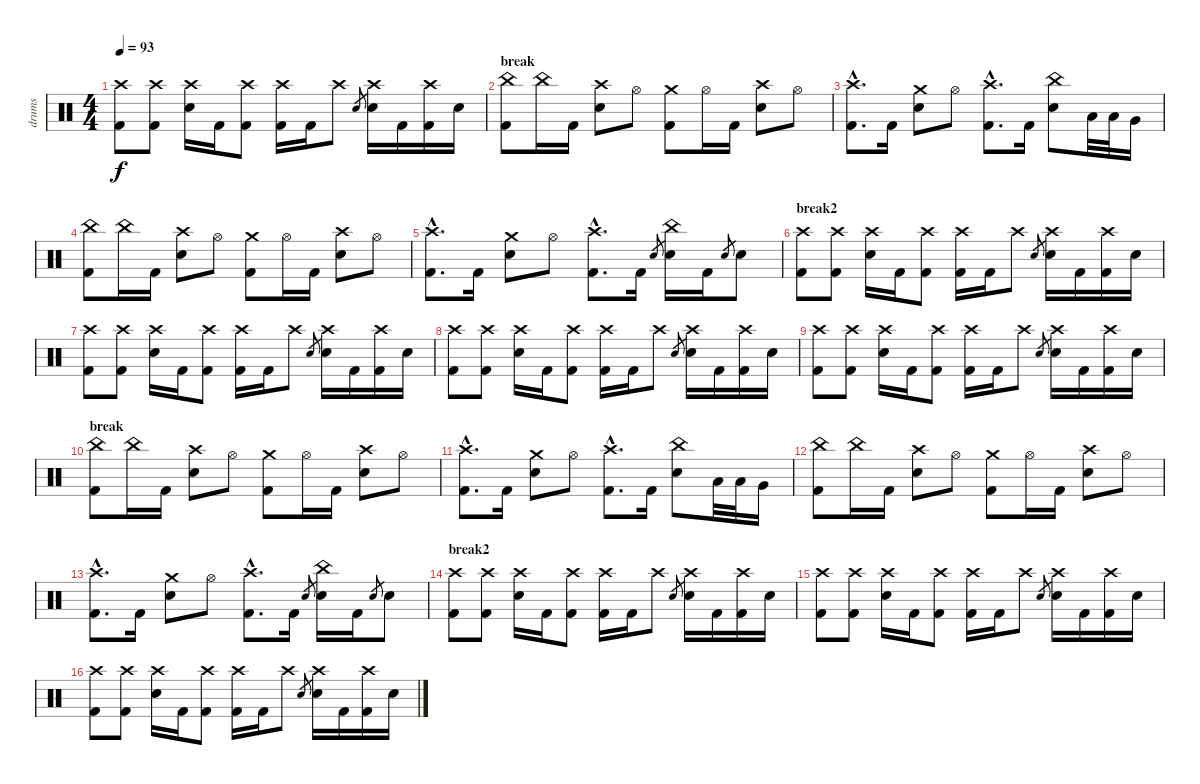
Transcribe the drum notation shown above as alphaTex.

\track ("drums" "drums") {instrument percussion}
\staff {score}
\articulation defaults
\ts (4 4)
\tempo 93
\clef neutral
\ks c
("Crash high (hit)" "Kick (hit) 2").8{dy f} ("Crash high (hit)" "Kick (hit) 2").8 ("Crash high (hit)" "Electric Snare (hit)").16 "Kick (hit) 2".16 ("Crash high (hit)" "Kick (hit) 2").8 ("Crash high (hit)" "Kick (hit) 2").16 "Kick (hit) 2".16 "Crash high (hit)".8 "Electric Snare (hit)".8{gr} ("Crash high (hit)" "Electric Snare (hit)").16 "Kick (hit) 2".16 ("Crash high (hit)" "Kick (hit) 2").16 "Electric Snare (hit)".16 |
\section ("" "break")
("China (hit)" "Kick (hit) 2").8 "China (hit)".16 "Kick (hit) 2".16 ("Crash high (hit)" "Electric Snare (hit)").8 "Hi-Hat (open)".8 ("Crash medium (hit)" "Kick (hit) 2").8 "Hi-Hat (open)".16 "Kick (hit) 2".16 ("Crash high (hit)" "Electric Snare (hit)").8 "Hi-Hat (open)".8 |
("Crash high (hit)"{hac} "Kick (hit) 2"{hac}).8{d} "Kick (hit) 2".16 ("Crash medium (hit)" "Electric Snare (hit)").8 "Hi-Hat (open)".8 ("Crash high (hit)"{hac} "Kick (hit) 2"{hac}).8{d} "Kick (hit) 2".16 ("China (hit)" "Electric Snare (hit)").8 "Low Tom (hit)".32 "Low Tom (hit)".32 "Very Low Tom (hit)".16 |
("China (hit)" "Kick (hit) 2").8 "China (hit)".16 "Kick (hit) 2".16 ("Crash high (hit)" "Electric Snare (hit)").8 "Hi-Hat (open)".8 ("Crash medium (hit)" "Kick (hit) 2").8 "Hi-Hat (open)".16 "Kick (hit) 2".16 ("Crash high (hit)" "Electric Snare (hit)").8 "Hi-Hat (open)".8 |
("Crash high (hit)"{hac} "Kick (hit) 2"{hac}).8{d} "Kick (hit) 2".16 ("Crash medium (hit)" "Electric Snare (hit)").8 "Hi-Hat (open)".8 ("Crash high (hit)"{hac} "Kick (hit) 2"{hac}).8{d} "Kick (hit) 2".16 "Electric Snare (hit)".8{gr} ("China (hit)" "Electric Snare (hit)").16 "Kick (hit) 2".16 "Electric Snare (hit)".8{gr} "Electric Snare (hit)".8 |
\section ("" "break2")
("Crash high (hit)" "Kick (hit) 2").8 ("Crash high (hit)" "Kick (hit) 2").8 ("Crash high (hit)" "Electric Snare (hit)").16 "Kick (hit) 2".16 ("Crash high (hit)" "Kick (hit) 2").8 ("Crash high (hit)" "Kick (hit) 2").16 "Kick (hit) 2".16 "Crash high (hit)".8 "Electric Snare (hit)".8{gr} ("Crash high (hit)" "Electric Snare (hit)").16 "Kick (hit) 2".16 ("Crash high (hit)" "Kick (hit) 2").16 "Electric Snare (hit)".16 |
("Crash high (hit)" "Kick (hit) 2").8 ("Crash high (hit)" "Kick (hit) 2").8 ("Crash high (hit)" "Electric Snare (hit)").16 "Kick (hit) 2".16 ("Crash high (hit)" "Kick (hit) 2").8 ("Crash high (hit)" "Kick (hit) 2").16 "Kick (hit) 2".16 "Crash high (hit)".8 "Electric Snare (hit)".8{gr} ("Crash high (hit)" "Electric Snare (hit)").16 "Kick (hit) 2".16 ("Crash high (hit)" "Kick (hit) 2").16 "Electric Snare (hit)".16 |
("Crash high (hit)" "Kick (hit) 2").8 ("Crash high (hit)" "Kick (hit) 2").8 ("Crash high (hit)" "Electric Snare (hit)").16 "Kick (hit) 2".16 ("Crash high (hit)" "Kick (hit) 2").8 ("Crash high (hit)" "Kick (hit) 2").16 "Kick (hit) 2".16 "Crash high (hit)".8 "Electric Snare (hit)".8{gr} ("Crash high (hit)" "Electric Snare (hit)").16 "Kick (hit) 2".16 ("Crash high (hit)" "Kick (hit) 2").16 "Electric Snare (hit)".16 |
("Crash high (hit)" "Kick (hit) 2").8 ("Crash high (hit)" "Kick (hit) 2").8 ("Crash high (hit)" "Electric Snare (hit)").16 "Kick (hit) 2".16 ("Crash high (hit)" "Kick (hit) 2").8 ("Crash high (hit)" "Kick (hit) 2").16 "Kick (hit) 2".16 "Crash high (hit)".8 "Electric Snare (hit)".8{gr} ("Crash high (hit)" "Electric Snare (hit)").16 "Kick (hit) 2".16 ("Crash high (hit)" "Kick (hit) 2").16 "Electric Snare (hit)".16 |
\section ("" "break")
("China (hit)" "Kick (hit) 2").8 "China (hit)".16 "Kick (hit) 2".16 ("Crash high (hit)" "Electric Snare (hit)").8 "Hi-Hat (open)".8 ("Crash medium (hit)" "Kick (hit) 2").8 "Hi-Hat (open)".16 "Kick (hit) 2".16 ("Crash high (hit)" "Electric Snare (hit)").8 "Hi-Hat (open)".8 |
("Crash high (hit)"{hac} "Kick (hit) 2"{hac}).8{d} "Kick (hit) 2".16 ("Crash medium (hit)" "Electric Snare (hit)").8 "Hi-Hat (open)".8 ("Crash high (hit)"{hac} "Kick (hit) 2"{hac}).8{d} "Kick (hit) 2".16 ("China (hit)" "Electric Snare (hit)").8 "Low Tom (hit)".32 "Low Tom (hit)".32 "Very Low Tom (hit)".16 |
("China (hit)" "Kick (hit) 2").8 "China (hit)".16 "Kick (hit) 2".16 ("Crash high (hit)" "Electric Snare (hit)").8 "Hi-Hat (open)".8 ("Crash medium (hit)" "Kick (hit) 2").8 "Hi-Hat (open)".16 "Kick (hit) 2".16 ("Crash high (hit)" "Electric Snare (hit)").8 "Hi-Hat (open)".8 |
("Crash high (hit)"{hac} "Kick (hit) 2"{hac}).8{d} "Kick (hit) 2".16 ("Crash medium (hit)" "Electric Snare (hit)").8 "Hi-Hat (open)".8 ("Crash high (hit)"{hac} "Kick (hit) 2"{hac}).8{d} "Kick (hit) 2".16 "Electric Snare (hit)".8{gr} ("China (hit)" "Electric Snare (hit)").16 "Kick (hit) 2".16 "Electric Snare (hit)".8{gr} "Electric Snare (hit)".8 |
\section ("" "break2")
("Crash high (hit)" "Kick (hit) 2").8 ("Crash high (hit)" "Kick (hit) 2").8 ("Crash high (hit)" "Electric Snare (hit)").16 "Kick (hit) 2".16 ("Crash high (hit)" "Kick (hit) 2").8 ("Crash high (hit)" "Kick (hit) 2").16 "Kick (hit) 2".16 "Crash high (hit)".8 "Electric Snare (hit)".8{gr} ("Crash high (hit)" "Electric Snare (hit)").16 "Kick (hit) 2".16 ("Crash high (hit)" "Kick (hit) 2").16 "Electric Snare (hit)".16 |
("Crash high (hit)" "Kick (hit) 2").8 ("Crash high (hit)" "Kick (hit) 2").8 ("Crash high (hit)" "Electric Snare (hit)").16 "Kick (hit) 2".16 ("Crash high (hit)" "Kick (hit) 2").8 ("Crash high (hit)" "Kick (hit) 2").16 "Kick (hit) 2".16 "Crash high (hit)".8 "Electric Snare (hit)".8{gr} ("Crash high (hit)" "Electric Snare (hit)").16 "Kick (hit) 2".16 ("Crash high (hit)" "Kick (hit) 2").16 "Electric Snare (hit)".16 |
("Crash high (hit)" "Kick (hit) 2").8 ("Crash high (hit)" "Kick (hit) 2").8 ("Crash high (hit)" "Electric Snare (hit)").16 "Kick (hit) 2".16 ("Crash high (hit)" "Kick (hit) 2").8 ("Crash high (hit)" "Kick (hit) 2").16 "Kick (hit) 2".16 "Crash high (hit)".8 "Electric Snare (hit)".8{gr} ("Crash high (hit)" "Electric Snare (hit)").16 "Kick (hit) 2".16 ("Crash high (hit)" "Kick (hit) 2").16 "Electric Snare (hit)".16
